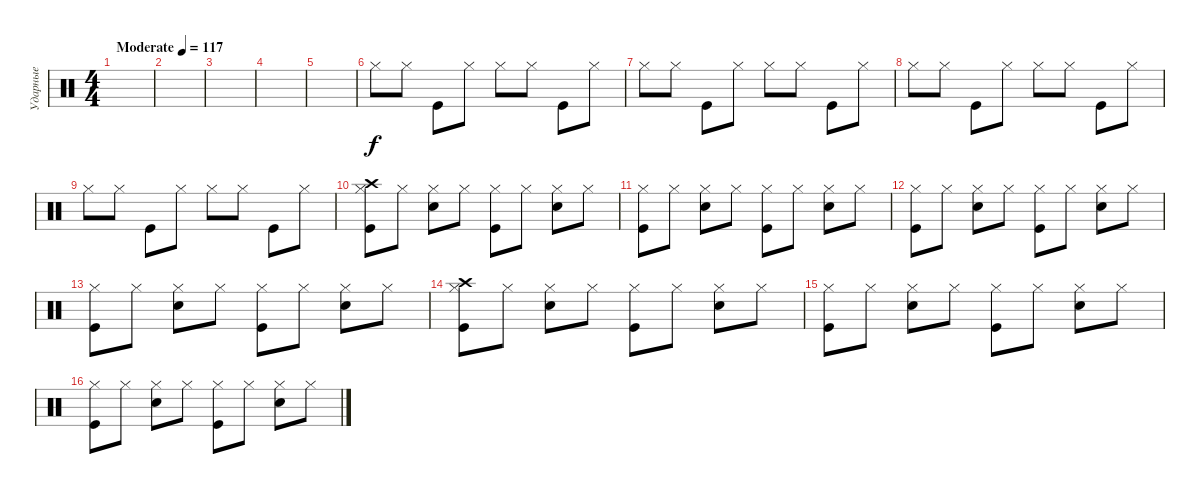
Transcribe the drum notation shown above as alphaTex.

\track ("Ударные" "Ударные") {instrument percussion}
\staff {score}
\articulation defaults
\ts (4 4)
\tempo (117 "Moderate")
\clef neutral
\ks c
|
|
|
|
|
"Hi-Hat (closed)".8 "Hi-Hat (closed)".8 "Kick (hit)".8 "Hi-Hat (closed)".8 "Hi-Hat (closed)".8 "Hi-Hat (closed)".8 "Kick (hit)".8 "Hi-Hat (closed)".8 |
"Hi-Hat (closed)".8 "Hi-Hat (closed)".8 "Kick (hit)".8 "Hi-Hat (closed)".8 "Hi-Hat (closed)".8 "Hi-Hat (closed)".8 "Kick (hit)".8 "Hi-Hat (closed)".8 |
"Hi-Hat (closed)".8 "Hi-Hat (closed)".8 "Kick (hit)".8 "Hi-Hat (closed)".8 "Hi-Hat (closed)".8 "Hi-Hat (closed)".8 "Kick (hit)".8 "Hi-Hat (closed)".8 |
"Hi-Hat (closed)".8 "Hi-Hat (closed)".8 "Kick (hit)".8 "Hi-Hat (closed)".8 "Hi-Hat (closed)".8 "Hi-Hat (closed)".8 "Kick (hit)".8 "Hi-Hat (closed)".8 |
("Kick (hit)" "Hi-Hat (closed)" "Crash high (hit)").8 "Hi-Hat (closed)".8 ("Hi-Hat (closed)" "Snare (hit) 2").8 "Hi-Hat (closed)".8 ("Kick (hit)" "Hi-Hat (closed)").8 "Hi-Hat (closed)".8 ("Hi-Hat (closed)" "Snare (hit) 2").8 "Hi-Hat (closed)".8 |
("Kick (hit)" "Hi-Hat (closed)").8 "Hi-Hat (closed)".8 ("Hi-Hat (closed)" "Snare (hit) 2").8 "Hi-Hat (closed)".8 ("Kick (hit)" "Hi-Hat (closed)").8 "Hi-Hat (closed)".8 ("Hi-Hat (closed)" "Snare (hit) 2").8 "Hi-Hat (closed)".8 |
("Kick (hit)" "Hi-Hat (closed)").8 "Hi-Hat (closed)".8 ("Hi-Hat (closed)" "Snare (hit) 2").8 "Hi-Hat (closed)".8 ("Kick (hit)" "Hi-Hat (closed)").8 "Hi-Hat (closed)".8 ("Hi-Hat (closed)" "Snare (hit) 2").8 "Hi-Hat (closed)".8 |
("Kick (hit)" "Hi-Hat (closed)").8 "Hi-Hat (closed)".8 ("Hi-Hat (closed)" "Snare (hit) 2").8 "Hi-Hat (closed)".8 ("Kick (hit)" "Hi-Hat (closed)").8 "Hi-Hat (closed)".8 ("Hi-Hat (closed)" "Snare (hit) 2").8 "Hi-Hat (closed)".8 |
("Kick (hit)" "Hi-Hat (closed)" "Crash high (hit)").8 "Hi-Hat (closed)".8 ("Hi-Hat (closed)" "Snare (hit) 2").8 "Hi-Hat (closed)".8 ("Kick (hit)" "Hi-Hat (closed)").8 "Hi-Hat (closed)".8 ("Hi-Hat (closed)" "Snare (hit) 2").8 "Hi-Hat (closed)".8 |
("Kick (hit)" "Hi-Hat (closed)").8 "Hi-Hat (closed)".8 ("Hi-Hat (closed)" "Snare (hit) 2").8 "Hi-Hat (closed)".8 ("Kick (hit)" "Hi-Hat (closed)").8 "Hi-Hat (closed)".8 ("Hi-Hat (closed)" "Snare (hit) 2").8 "Hi-Hat (closed)".8 |
("Kick (hit)" "Hi-Hat (closed)").8 "Hi-Hat (closed)".8 ("Hi-Hat (closed)" "Snare (hit) 2").8 "Hi-Hat (closed)".8 ("Kick (hit)" "Hi-Hat (closed)").8 "Hi-Hat (closed)".8 ("Hi-Hat (closed)" "Snare (hit) 2").8 "Hi-Hat (closed)".8
